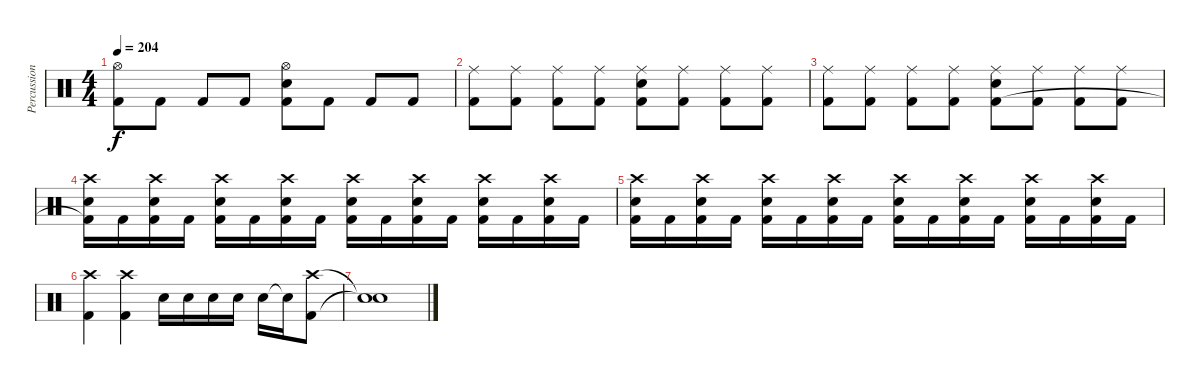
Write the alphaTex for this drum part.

\track ("Percussion" "Percussion") {instrument percussion}
\staff {score}
\articulation defaults
\ts (4 4)
\tempo 204
\clef neutral
\ks c
("Hi-Hat (open)" "Kick (hit) 2").8{dy f} "Kick (hit) 2".8 "Kick (hit) 2".8 "Kick (hit) 2".8 ("Hi-Hat (open)" "Electric Snare (hit)" "Kick (hit) 2").8 "Kick (hit) 2".8 "Kick (hit) 2".8 "Kick (hit) 2".8 |
("Ride (middle)" "Kick (hit) 2").8 ("Ride (middle)" "Kick (hit) 2").8 ("Ride (middle)" "Kick (hit) 2").8 ("Ride (middle)" "Kick (hit) 2").8 ("Ride (middle)" "Electric Snare (hit)" "Kick (hit) 2").8 ("Ride (middle)" "Kick (hit) 2").8 ("Ride (middle)" "Kick (hit) 2").8 ("Ride (middle)" "Kick (hit) 2").8 |
("Ride (middle)" "Kick (hit) 2").8 ("Ride (middle)" "Kick (hit) 2").8 ("Ride (middle)" "Kick (hit) 2").8 ("Ride (middle)" "Kick (hit) 2").8 ("Ride (middle)" "Electric Snare (hit)" "Kick (hit) 2").8 ("Ride (middle)" "Kick (hit) 2").8 ("Ride (middle)" "Kick (hit) 2").8 ("Ride (middle)" "Kick (hit) 2").8 |
("Crash high (hit)" "Electric Snare (hit)" "Kick (hit) 2"{t}).16 "Kick (hit) 2".16 ("Crash high (hit)" "Electric Snare (hit)" "Kick (hit) 2").16 "Kick (hit) 2".16 ("Crash high (hit)" "Electric Snare (hit)" "Kick (hit) 2").16 "Kick (hit) 2".16 ("Crash high (hit)" "Electric Snare (hit)" "Kick (hit) 2").16 "Kick (hit) 2".16 ("Crash high (hit)" "Electric Snare (hit)" "Kick (hit) 2").16 "Kick (hit) 2".16 ("Crash high (hit)" "Electric Snare (hit)" "Kick (hit) 2").16 "Kick (hit) 2".16 ("Crash high (hit)" "Electric Snare (hit)" "Kick (hit) 2").16 "Kick (hit) 2".16 ("Crash high (hit)" "Electric Snare (hit)" "Kick (hit) 2").16 "Kick (hit) 2".16 |
("Crash high (hit)" "Electric Snare (hit)" "Kick (hit) 2").16 "Kick (hit) 2".16 ("Crash high (hit)" "Electric Snare (hit)" "Kick (hit) 2").16 "Kick (hit) 2".16 ("Crash high (hit)" "Electric Snare (hit)" "Kick (hit) 2").16 "Kick (hit) 2".16 ("Crash high (hit)" "Electric Snare (hit)" "Kick (hit) 2").16 "Kick (hit) 2".16 ("Crash high (hit)" "Electric Snare (hit)" "Kick (hit) 2").16 "Kick (hit) 2".16 ("Crash high (hit)" "Electric Snare (hit)" "Kick (hit) 2").16 "Kick (hit) 2".16 ("Crash high (hit)" "Electric Snare (hit)" "Kick (hit) 2").16 "Kick (hit) 2".16 ("Crash high (hit)" "Electric Snare (hit)" "Kick (hit) 2").16 "Kick (hit) 2".16 |
("Crash high (hit)" "Kick (hit) 2").4 ("Crash high (hit)" "Kick (hit) 2").4 "Electric Snare (hit)".16 "Electric Snare (hit)".16 "Electric Snare (hit)".16 "Electric Snare (hit)".16 "Electric Snare (hit)".16 "Snare (hit)"{t}.16 ("Crash high (hit)" "Kick (hit) 2").8 |
("Snare (hit)"{t} "Snare (hit)"{t}).1
